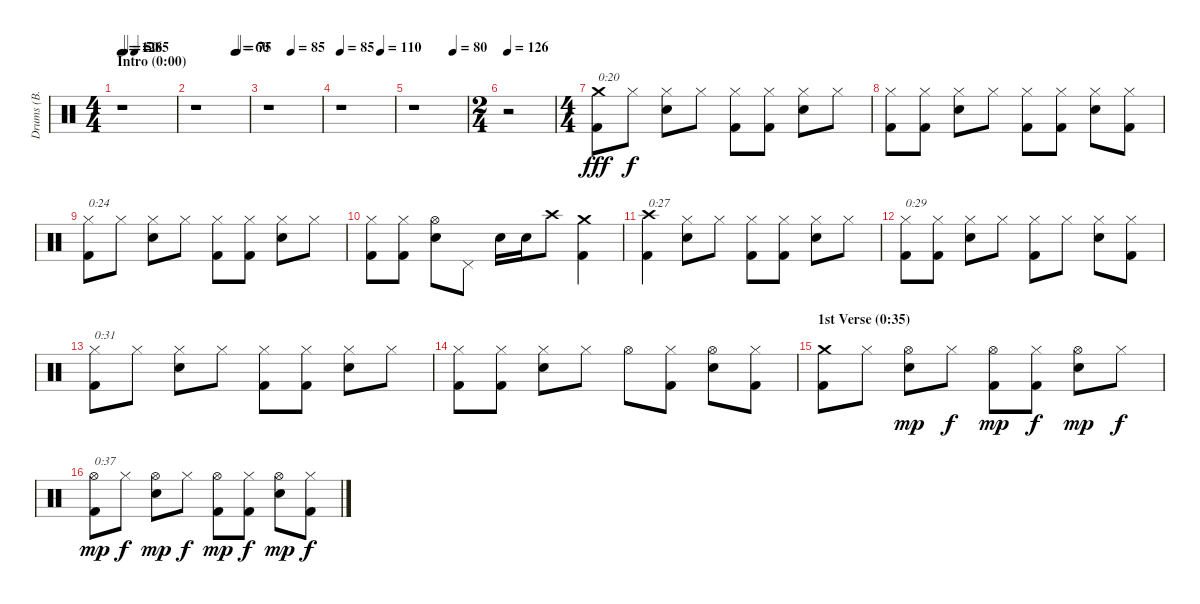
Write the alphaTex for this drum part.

\track ("Drums (B. Downey)" "Drums (B. ") {instrument percussion}
\staff {score}
\articulation defaults
\ts (4 4)
\section ("" "Intro (0:00)")
\tempo 126
\tempo 1
\tempo (50 0.0625)
\tempo (85 0.25)
\tempo 126
\clef neutral
\ks c
r.1{dy fff} |
\tempo (60 0.75)
\tempo (75 0.7916666666666666)
r.1 |
\tempo (85 0.4375)
r.1 |
\tempo 85
\tempo (110 0.75)
r.1 |
\tempo (80 0.75)
r.1 |
\ts (2 4)
\tempo 126
r.2 |
\ts (4 4)
("Crash medium (hit)" "Kick (hit) 2").8{txt "0:20"} "Hi-Hat (closed)".8{dy f} ("Hi-Hat (closed)" "Electric Snare (hit)").8 "Hi-Hat (closed)".8 ("Hi-Hat (closed)" "Kick (hit) 2").8 ("Hi-Hat (closed)" "Kick (hit) 2").8 ("Hi-Hat (closed)" "Electric Snare (hit)").8 "Hi-Hat (closed)".8 |
("Hi-Hat (closed)" "Kick (hit) 2").8 ("Hi-Hat (closed)" "Kick (hit) 2").8 ("Hi-Hat (closed)" "Electric Snare (hit)").8 "Hi-Hat (closed)".8 ("Hi-Hat (closed)" "Kick (hit) 2").8 ("Hi-Hat (closed)" "Kick (hit) 2").8 ("Hi-Hat (closed)" "Electric Snare (hit)").8 ("Hi-Hat (closed)" "Kick (hit) 2").8 |
("Hi-Hat (closed)" "Kick (hit) 2").8{txt "0:24"} "Hi-Hat (closed)".8 ("Hi-Hat (closed)" "Electric Snare (hit)").8 "Hi-Hat (closed)".8 ("Hi-Hat (closed)" "Kick (hit) 2").8 ("Hi-Hat (closed)" "Kick (hit) 2").8 ("Hi-Hat (closed)" "Electric Snare (hit)").8 "Hi-Hat (closed)".8 |
("Hi-Hat (closed)" "Kick (hit) 2").8 ("Hi-Hat (closed)" "Kick (hit) 2").8 ("Hi-Hat (open)" "Electric Snare (hit)").8 "Pedal Hi-Hat (hit)".8 "Electric Snare (hit)".16 "Electric Snare (hit)".16 "Crash high (hit)".8{balance 13} ("Crash medium (hit)" "Kick (hit) 2").4{balance 3} |
("Crash high (hit)" "Kick (hit) 2").4{txt "0:27" balance 8} ("Hi-Hat (closed)" "Electric Snare (hit)").8 "Hi-Hat (closed)".8 ("Hi-Hat (closed)" "Kick (hit) 2").8 ("Hi-Hat (closed)" "Kick (hit) 2").8 ("Hi-Hat (closed)" "Electric Snare (hit)").8 "Hi-Hat (closed)".8 |
("Hi-Hat (closed)" "Kick (hit) 2").8{txt "0:29"} ("Hi-Hat (closed)" "Kick (hit) 2").8 ("Hi-Hat (closed)" "Electric Snare (hit)").8 "Hi-Hat (closed)".8 ("Hi-Hat (closed)" "Kick (hit) 2").8 "Hi-Hat (closed)".8 ("Hi-Hat (closed)" "Electric Snare (hit)").8 ("Hi-Hat (closed)" "Kick (hit) 2").8 |
("Hi-Hat (closed)" "Kick (hit) 2").8{txt "0:31"} "Hi-Hat (closed)".8 ("Hi-Hat (closed)" "Electric Snare (hit)").8 "Hi-Hat (closed)".8 ("Hi-Hat (closed)" "Kick (hit) 2").8 ("Hi-Hat (closed)" "Kick (hit) 2").8 ("Hi-Hat (closed)" "Electric Snare (hit)").8 "Hi-Hat (closed)".8 |
("Hi-Hat (closed)" "Kick (hit) 2").8 ("Hi-Hat (closed)" "Kick (hit) 2").8 ("Hi-Hat (closed)" "Electric Snare (hit)").8 "Hi-Hat (closed)".8 "Hi-Hat (open)".8 ("Hi-Hat (closed)" "Kick (hit) 2").8 ("Hi-Hat (open)" "Electric Snare (hit)").8 ("Hi-Hat (closed)" "Kick (hit) 2").8 |
\section ("" "1st Verse (0:35)")
("Crash medium (hit)" "Kick (hit) 2").8 "Hi-Hat (closed)".8 ("Hi-Hat (open)" "Electric Snare (hit)").8{dy mp} "Hi-Hat (closed)".8{dy f} ("Hi-Hat (open)" "Kick (hit) 2").8{dy mp} ("Hi-Hat (closed)" "Kick (hit) 2").8{dy f} ("Hi-Hat (open)" "Electric Snare (hit)").8{dy mp} "Hi-Hat (closed)".8{dy f} |
("Hi-Hat (open)" "Kick (hit) 2").8{txt "0:37" dy mp} "Hi-Hat (closed)".8{dy f} ("Hi-Hat (open)" "Electric Snare (hit)").8{dy mp} "Hi-Hat (closed)".8{dy f} ("Hi-Hat (open)" "Kick (hit) 2").8{dy mp} ("Hi-Hat (closed)" "Kick (hit) 2").8{dy f} ("Hi-Hat (open)" "Electric Snare (hit)").8{dy mp} ("Hi-Hat (closed)" "Kick (hit) 2").8{dy f}
